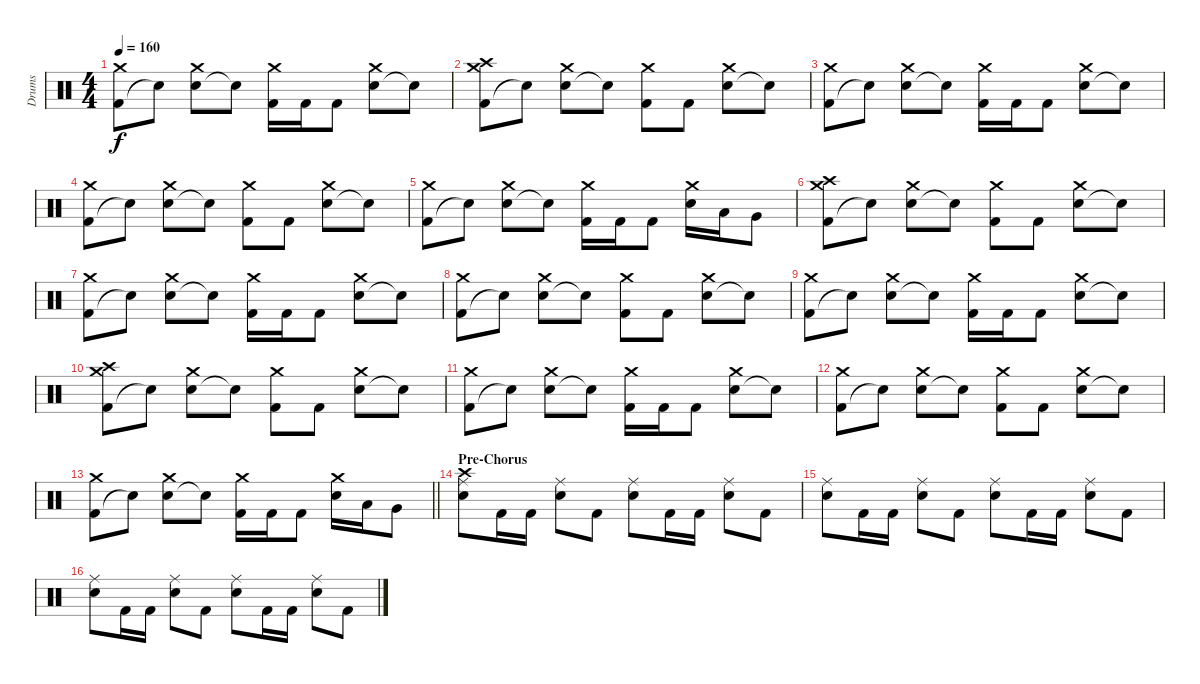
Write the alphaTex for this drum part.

\track ("Drums" "Drums") {instrument percussion}
\staff {score}
\articulation defaults
\ts (4 4)
\tempo 160
\clef neutral
\ks c
("Kick (hit) 2" "Crash medium (hit)").8{dy f} "Snare (hit)"{t}.8 ("Snare (hit) 2" "Crash medium (hit)").8 "Snare (hit)"{t}.8 ("Kick (hit) 2" "Crash medium (hit)").16 "Kick (hit) 2".16 "Kick (hit) 2".8 ("Snare (hit) 2" "Crash medium (hit)").8 "Snare (hit)"{t}.8 |
("Kick (hit) 2" "Crash medium (hit)" "Crash high (hit)").8 "Snare (hit)"{t}.8 ("Snare (hit) 2" "Crash medium (hit)").8 "Snare (hit)"{t}.8 ("Kick (hit) 2" "Crash medium (hit)").8 "Kick (hit) 2".8 ("Snare (hit) 2" "Crash medium (hit)").8 "Snare (hit)"{t}.8 |
("Kick (hit) 2" "Crash medium (hit)").8 "Snare (hit)"{t}.8 ("Snare (hit) 2" "Crash medium (hit)").8 "Snare (hit)"{t}.8 ("Kick (hit) 2" "Crash medium (hit)").16 "Kick (hit) 2".16 "Kick (hit) 2".8 ("Snare (hit) 2" "Crash medium (hit)").8 "Snare (hit)"{t}.8 |
("Kick (hit) 2" "Crash medium (hit)").8 "Snare (hit)"{t}.8 ("Snare (hit) 2" "Crash medium (hit)").8 "Snare (hit)"{t}.8 ("Kick (hit) 2" "Crash medium (hit)").8 "Kick (hit) 2".8 ("Snare (hit) 2" "Crash medium (hit)").8 "Snare (hit)"{t}.8 |
("Kick (hit) 2" "Crash medium (hit)").8 "Snare (hit)"{t}.8 ("Snare (hit) 2" "Crash medium (hit)").8 "Snare (hit)"{t}.8 ("Kick (hit) 2" "Crash medium (hit)").16 "Kick (hit) 2".16 "Kick (hit) 2".8 ("Snare (hit) 2" "Crash medium (hit)").16 "Low Tom (hit)".16 "Very Low Tom (hit)".8 |
("Kick (hit) 2" "Crash medium (hit)" "Crash high (hit)").8 "Snare (hit)"{t}.8 ("Snare (hit) 2" "Crash medium (hit)").8 "Snare (hit)"{t}.8 ("Kick (hit) 2" "Crash medium (hit)").8 "Kick (hit) 2".8 ("Snare (hit) 2" "Crash medium (hit)").8 "Snare (hit)"{t}.8 |
("Kick (hit) 2" "Crash medium (hit)").8 "Snare (hit)"{t}.8 ("Snare (hit) 2" "Crash medium (hit)").8 "Snare (hit)"{t}.8 ("Kick (hit) 2" "Crash medium (hit)").16 "Kick (hit) 2".16 "Kick (hit) 2".8 ("Snare (hit) 2" "Crash medium (hit)").8 "Snare (hit)"{t}.8 |
("Kick (hit) 2" "Crash medium (hit)").8 "Snare (hit)"{t}.8 ("Snare (hit) 2" "Crash medium (hit)").8 "Snare (hit)"{t}.8 ("Kick (hit) 2" "Crash medium (hit)").8 "Kick (hit) 2".8 ("Snare (hit) 2" "Crash medium (hit)").8 "Snare (hit)"{t}.8 |
("Kick (hit) 2" "Crash medium (hit)").8 "Snare (hit)"{t}.8 ("Snare (hit) 2" "Crash medium (hit)").8 "Snare (hit)"{t}.8 ("Kick (hit) 2" "Crash medium (hit)").16 "Kick (hit) 2".16 "Kick (hit) 2".8 ("Snare (hit) 2" "Crash medium (hit)").8 "Snare (hit)"{t}.8 |
("Kick (hit) 2" "Crash medium (hit)" "Crash high (hit)").8 "Snare (hit)"{t}.8 ("Snare (hit) 2" "Crash medium (hit)").8 "Snare (hit)"{t}.8 ("Kick (hit) 2" "Crash medium (hit)").8 "Kick (hit) 2".8 ("Snare (hit) 2" "Crash medium (hit)").8 "Snare (hit)"{t}.8 |
("Kick (hit) 2" "Crash medium (hit)").8 "Snare (hit)"{t}.8 ("Snare (hit) 2" "Crash medium (hit)").8 "Snare (hit)"{t}.8 ("Kick (hit) 2" "Crash medium (hit)").16 "Kick (hit) 2".16 "Kick (hit) 2".8 ("Snare (hit) 2" "Crash medium (hit)").8 "Snare (hit)"{t}.8 |
("Kick (hit) 2" "Crash medium (hit)").8 "Snare (hit)"{t}.8 ("Snare (hit) 2" "Crash medium (hit)").8 "Snare (hit)"{t}.8 ("Kick (hit) 2" "Crash medium (hit)").8 "Kick (hit) 2".8 ("Snare (hit) 2" "Crash medium (hit)").8 "Snare (hit)"{t}.8 |
\barLineRight lightlight
("Kick (hit) 2" "Crash medium (hit)").8 "Snare (hit)"{t}.8 ("Snare (hit) 2" "Crash medium (hit)").8 "Snare (hit)"{t}.8 ("Kick (hit) 2" "Crash medium (hit)").16 "Kick (hit) 2".16 "Kick (hit) 2".8 ("Snare (hit) 2" "Crash medium (hit)").16 "Low Tom (hit)".16 "Very Low Tom (hit)".8 |
\section ("" "Pre-Chorus")
("Snare (hit) 2" "Ride (middle)" "Crash high (hit)").8 "Kick (hit) 2".16 "Kick (hit) 2".16 ("Snare (hit) 2" "Ride (middle)").8 "Kick (hit) 2".8 ("Snare (hit) 2" "Ride (middle)").8 "Kick (hit) 2".16 "Kick (hit) 2".16 ("Snare (hit) 2" "Ride (middle)").8 "Kick (hit) 2".8 |
("Snare (hit) 2" "Ride (middle)").8 "Kick (hit) 2".16 "Kick (hit) 2".16 ("Snare (hit) 2" "Ride (middle)").8 "Kick (hit) 2".8 ("Snare (hit) 2" "Ride (middle)").8 "Kick (hit) 2".16 "Kick (hit) 2".16 ("Snare (hit) 2" "Ride (middle)").8 "Kick (hit) 2".8 |
("Snare (hit) 2" "Ride (middle)").8 "Kick (hit) 2".16 "Kick (hit) 2".16 ("Snare (hit) 2" "Ride (middle)").8 "Kick (hit) 2".8 ("Snare (hit) 2" "Ride (middle)").8 "Kick (hit) 2".16 "Kick (hit) 2".16 ("Snare (hit) 2" "Ride (middle)").8 "Kick (hit) 2".8
